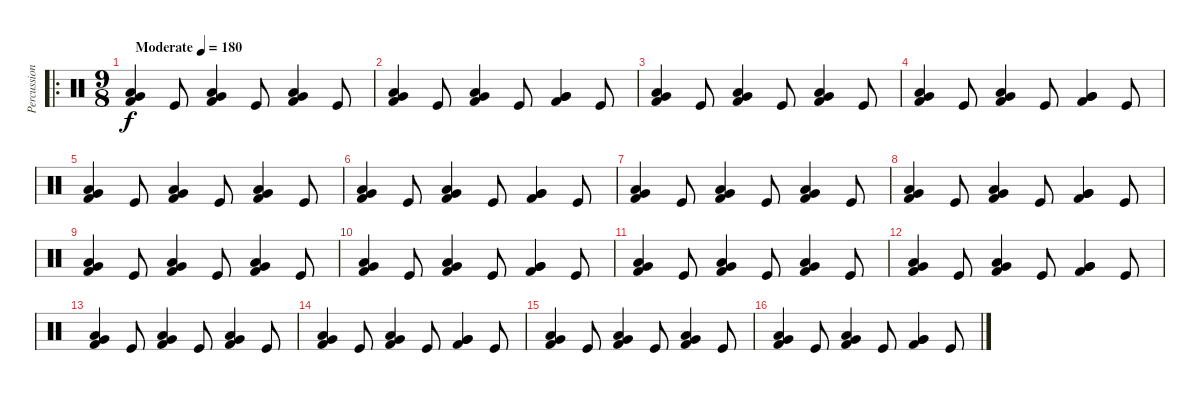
\track ("Percussion" "Percussion") {instrument percussion}
\staff {score}
\articulation defaults
\ro
\ts (9 8)
\tempo (180 "Moderate")
\clef neutral
\ks c
("Very Low Tom (hit)" "Kick (hit) 2" "Low Floor Tom (hit)").4{dy f} "Kick (hit)".8 ("Very Low Tom (hit)" "Kick (hit) 2" "Low Floor Tom (hit)").4 "Kick (hit)".8 ("Very Low Tom (hit)" "Kick (hit) 2" "Low Tom (hit)").4 "Kick (hit)".8 |
("Very Low Tom (hit)" "Kick (hit) 2" "Low Floor Tom (hit)").4 "Kick (hit)".8 ("Very Low Tom (hit)" "Kick (hit) 2" "Low Floor Tom (hit)").4 "Kick (hit)".8 ("Very Low Tom (hit)" "Kick (hit) 2" "Very Low Tom (hit)").4 "Kick (hit)".8 |
("Very Low Tom (hit)" "Kick (hit) 2" "Low Floor Tom (hit)").4 "Kick (hit)".8 ("Very Low Tom (hit)" "Kick (hit) 2" "Low Floor Tom (hit)").4 "Kick (hit)".8 ("Very Low Tom (hit)" "Kick (hit) 2" "Low Tom (hit)").4 "Kick (hit)".8 |
("Very Low Tom (hit)" "Kick (hit) 2" "Low Floor Tom (hit)").4 "Kick (hit)".8 ("Very Low Tom (hit)" "Kick (hit) 2" "Low Floor Tom (hit)").4 "Kick (hit)".8 ("Very Low Tom (hit)" "Kick (hit) 2" "Very Low Tom (hit)").4 "Kick (hit)".8 |
("Very Low Tom (hit)" "Kick (hit) 2" "Low Floor Tom (hit)").4 "Kick (hit)".8 ("Very Low Tom (hit)" "Kick (hit) 2" "Low Floor Tom (hit)").4 "Kick (hit)".8 ("Very Low Tom (hit)" "Kick (hit) 2" "Low Tom (hit)").4 "Kick (hit)".8 |
("Very Low Tom (hit)" "Kick (hit) 2" "Low Floor Tom (hit)").4 "Kick (hit)".8 ("Very Low Tom (hit)" "Kick (hit) 2" "Low Floor Tom (hit)").4 "Kick (hit)".8 ("Very Low Tom (hit)" "Kick (hit) 2" "Very Low Tom (hit)").4 "Kick (hit)".8 |
("Very Low Tom (hit)" "Kick (hit) 2" "Low Floor Tom (hit)").4 "Kick (hit)".8 ("Very Low Tom (hit)" "Kick (hit) 2" "Low Floor Tom (hit)").4 "Kick (hit)".8 ("Very Low Tom (hit)" "Kick (hit) 2" "Low Tom (hit)").4 "Kick (hit)".8 |
("Very Low Tom (hit)" "Kick (hit) 2" "Low Floor Tom (hit)").4 "Kick (hit)".8 ("Very Low Tom (hit)" "Kick (hit) 2" "Low Floor Tom (hit)").4 "Kick (hit)".8 ("Very Low Tom (hit)" "Kick (hit) 2" "Very Low Tom (hit)").4 "Kick (hit)".8 |
("Very Low Tom (hit)" "Kick (hit) 2" "Low Floor Tom (hit)").4 "Kick (hit)".8 ("Very Low Tom (hit)" "Kick (hit) 2" "Low Floor Tom (hit)").4 "Kick (hit)".8 ("Very Low Tom (hit)" "Kick (hit) 2" "Low Tom (hit)").4 "Kick (hit)".8 |
("Very Low Tom (hit)" "Kick (hit) 2" "Low Floor Tom (hit)").4 "Kick (hit)".8 ("Very Low Tom (hit)" "Kick (hit) 2" "Low Floor Tom (hit)").4 "Kick (hit)".8 ("Very Low Tom (hit)" "Kick (hit) 2" "Very Low Tom (hit)").4 "Kick (hit)".8 |
("Very Low Tom (hit)" "Kick (hit) 2" "Low Floor Tom (hit)").4 "Kick (hit)".8 ("Very Low Tom (hit)" "Kick (hit) 2" "Low Floor Tom (hit)").4 "Kick (hit)".8 ("Very Low Tom (hit)" "Kick (hit) 2" "Low Tom (hit)").4 "Kick (hit)".8 |
("Very Low Tom (hit)" "Kick (hit) 2" "Low Floor Tom (hit)").4 "Kick (hit)".8 ("Very Low Tom (hit)" "Kick (hit) 2" "Low Floor Tom (hit)").4 "Kick (hit)".8 ("Very Low Tom (hit)" "Kick (hit) 2" "Very Low Tom (hit)").4 "Kick (hit)".8 |
("Very Low Tom (hit)" "Kick (hit) 2" "Low Floor Tom (hit)").4 "Kick (hit)".8 ("Very Low Tom (hit)" "Kick (hit) 2" "Low Floor Tom (hit)").4 "Kick (hit)".8 ("Very Low Tom (hit)" "Kick (hit) 2" "Low Tom (hit)").4 "Kick (hit)".8 |
("Very Low Tom (hit)" "Kick (hit) 2" "Low Floor Tom (hit)").4 "Kick (hit)".8 ("Very Low Tom (hit)" "Kick (hit) 2" "Low Floor Tom (hit)").4 "Kick (hit)".8 ("Very Low Tom (hit)" "Kick (hit) 2" "Very Low Tom (hit)").4 "Kick (hit)".8 |
("Very Low Tom (hit)" "Kick (hit) 2" "Low Floor Tom (hit)").4 "Kick (hit)".8 ("Very Low Tom (hit)" "Kick (hit) 2" "Low Floor Tom (hit)").4 "Kick (hit)".8 ("Very Low Tom (hit)" "Kick (hit) 2" "Low Tom (hit)").4 "Kick (hit)".8 |
("Very Low Tom (hit)" "Kick (hit) 2" "Low Floor Tom (hit)").4 "Kick (hit)".8 ("Very Low Tom (hit)" "Kick (hit) 2" "Low Floor Tom (hit)").4 "Kick (hit)".8 ("Very Low Tom (hit)" "Kick (hit) 2" "Very Low Tom (hit)").4 "Kick (hit)".8
